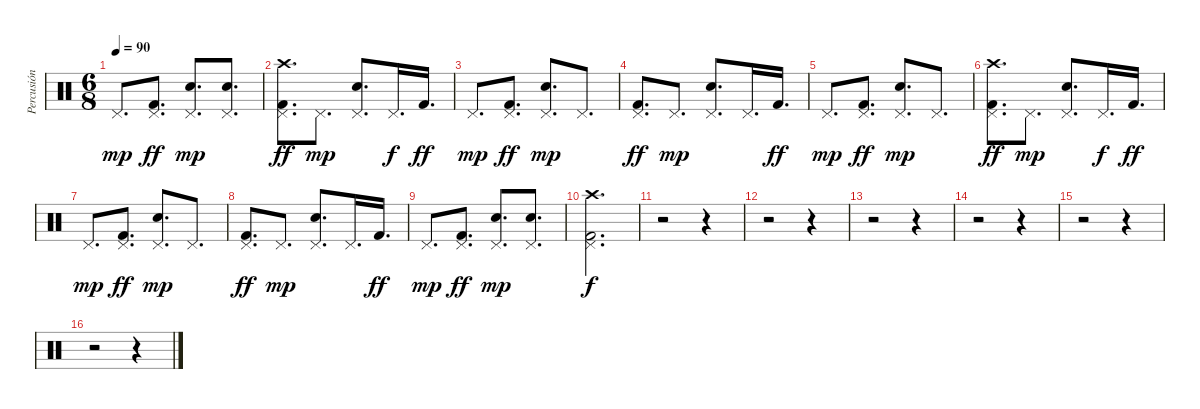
\track ("Percusión" "Percusión") {instrument percussion}
\staff {score}
\articulation defaults
\ts (6 8)
\tempo 90
\clef neutral
\ks c "Pedal Hi-Hat (hit)".8{d dy mp}
("Pedal Hi-Hat (hit)" "Kick (hit) 2").8{d dy ff} ("Pedal Hi-Hat (hit)" "Electric Snare (hit)").8{d dy mp} ("Pedal Hi-Hat (hit)" "Electric Snare (hit)").8{d} |
("Crash high (hit)" "Pedal Hi-Hat (hit)" "Kick (hit) 2").8{d dy ff} "Pedal Hi-Hat (hit)".8{d dy mp} ("Pedal Hi-Hat (hit)" "Electric Snare (hit)").8{d} "Pedal Hi-Hat (hit)".16{d dy f} "Kick (hit) 2".16{d dy ff} |
"Pedal Hi-Hat (hit)".8{d dy mp} ("Pedal Hi-Hat (hit)" "Kick (hit) 2").8{d dy ff} ("Pedal Hi-Hat (hit)" "Electric Snare (hit)").8{d dy mp} "Pedal Hi-Hat (hit)".8{d} |
("Pedal Hi-Hat (hit)" "Kick (hit) 2").8{d dy ff} "Pedal Hi-Hat (hit)".8{d dy mp} ("Pedal Hi-Hat (hit)" "Electric Snare (hit)").8{d} "Pedal Hi-Hat (hit)".16{d} "Kick (hit) 2".16{d dy ff} |
"Pedal Hi-Hat (hit)".8{d dy mp} ("Pedal Hi-Hat (hit)" "Kick (hit) 2").8{d dy ff} ("Pedal Hi-Hat (hit)" "Electric Snare (hit)").8{d dy mp} "Pedal Hi-Hat (hit)".8{d} |
("Crash high (hit)" "Pedal Hi-Hat (hit)" "Kick (hit) 2").8{d dy ff} "Pedal Hi-Hat (hit)".8{d dy mp} ("Pedal Hi-Hat (hit)" "Electric Snare (hit)").8{d} "Pedal Hi-Hat (hit)".16{d dy f} "Kick (hit) 2".16{d dy ff} |
"Pedal Hi-Hat (hit)".8{d dy mp} ("Pedal Hi-Hat (hit)" "Kick (hit) 2").8{d dy ff} ("Pedal Hi-Hat (hit)" "Electric Snare (hit)").8{d dy mp} "Pedal Hi-Hat (hit)".8{d} |
("Pedal Hi-Hat (hit)" "Kick (hit) 2").8{d dy ff} "Pedal Hi-Hat (hit)".8{d dy mp} ("Pedal Hi-Hat (hit)" "Electric Snare (hit)").8{d} "Pedal Hi-Hat (hit)".16{d} "Kick (hit) 2".16{d dy ff} |
"Pedal Hi-Hat (hit)".8{d dy mp} ("Pedal Hi-Hat (hit)" "Kick (hit) 2").8{d dy ff} ("Pedal Hi-Hat (hit)" "Electric Snare (hit)").8{d dy mp} ("Pedal Hi-Hat (hit)" "Electric Snare (hit)").8{d} |
("Crash high (hit)" "Pedal Hi-Hat (hit)" "Kick (hit) 2").2{d dy f} |
r.2 r.4 |
r.2 r.4 |
r.2 r.4 |
r.2 r.4 |
r.2 r.4 |
r.2 r.4
